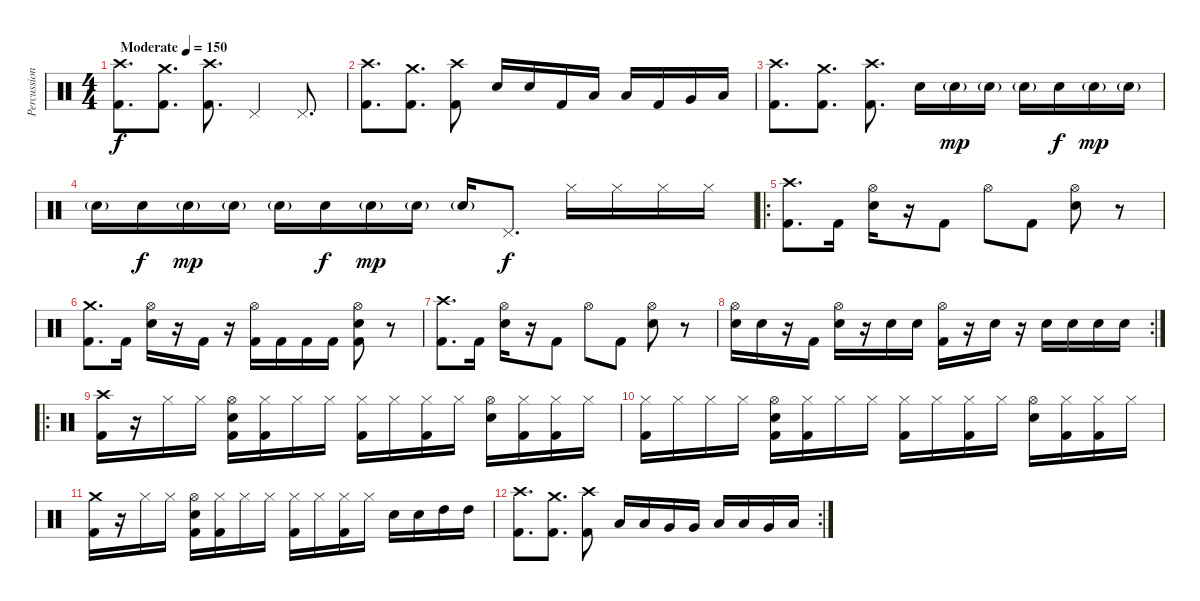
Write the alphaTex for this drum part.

\track ("Percussion" "Percussion") {instrument percussion}
\staff {score}
\articulation defaults
\ts (4 4)
\tempo (150 "Moderate")
\clef neutral
\ks c
("Crash high (hit)" "Kick (hit) 2").8{d dy f} ("Crash medium (hit)" "Kick (hit) 2").8{d} ("Crash high (hit)" "Kick (hit) 2").8{d} "Pedal Hi-Hat (hit)".4 "Pedal Hi-Hat (hit)".8{d} |
("Crash high (hit)" "Kick (hit) 2").8{d} ("Crash medium (hit)" "Kick (hit) 2").8{d} ("Crash high (hit)" "Kick (hit) 2").8 "Snare (hit) 2".16 "Snare (hit) 2".16 "Kick (hit) 2".16 "Low Tom (hit)".16 "Low Tom (hit)".16 "Kick (hit) 2".16 "Very Low Tom (hit)".16 "Low Floor Tom (hit)".16 |
("Crash high (hit)" "Kick (hit) 2").8{d} ("Crash medium (hit)" "Kick (hit) 2").8{d} ("Crash high (hit)" "Kick (hit) 2").8{d} "Snare (hit) 2".16 "Snare (hit) 2"{g}.16{dy mp} "Snare (hit) 2"{g}.16 "Snare (hit) 2"{g}.16 "Snare (hit) 2".16{dy f} "Snare (hit) 2"{g}.16{dy mp} "Snare (hit) 2"{g}.16 |
"Snare (hit) 2"{g}.16 "Snare (hit) 2".16{dy f} "Snare (hit) 2"{g}.16{dy mp} "Snare (hit) 2"{g}.16 "Snare (hit) 2"{g}.16 "Snare (hit) 2".16{dy f} "Snare (hit) 2"{g}.16{dy mp} "Snare (hit) 2"{g}.16 "Snare (hit) 2"{g}.16 "Pedal Hi-Hat (hit)".8{d dy f} "Hi-Hat (closed)".16 "Hi-Hat (closed)".16 "Hi-Hat (closed)".16 "Hi-Hat (closed)".16 |
\ro
("Crash high (hit)" "Kick (hit) 2").8{d} "Kick (hit) 2".16 ("Hi-Hat (open)" "Snare (hit) 2").16 r.16 "Kick (hit) 2".8 "Hi-Hat (open)".8 "Kick (hit) 2".8 ("Hi-Hat (open)" "Snare (hit) 2").8 r.8 |
("Crash medium (hit)" "Kick (hit) 2").8{d} "Kick (hit) 2".16 ("Hi-Hat (open)" "Snare (hit) 2").16 r.16 "Kick (hit) 2".16 r.16 ("Hi-Hat (open)" "Kick (hit) 2").16 "Kick (hit) 2".16 "Kick (hit) 2".16 "Kick (hit) 2".16 ("Hi-Hat (open)" "Snare (hit) 2" "Kick (hit) 2").8 r.8 |
("Crash high (hit)" "Kick (hit) 2").8{d} "Kick (hit) 2".16 ("Hi-Hat (open)" "Snare (hit) 2").16 r.16 "Kick (hit) 2".8 "Hi-Hat (open)".8 "Kick (hit) 2".8 ("Hi-Hat (open)" "Snare (hit) 2").8 r.8 |
\rc 2
("Hi-Hat (open)" "Snare (hit) 2").16 "Snare (hit) 2".16 r.16 "Kick (hit) 2".16 ("Hi-Hat (open)" "Snare (hit) 2").16 r.16 "Snare (hit) 2".16 "Snare (hit) 2".16 ("Hi-Hat (open)" "Kick (hit) 2").16 r.16 "Snare (hit) 2".16 r.16 "Snare (hit) 2".16 "Snare (hit) 2".16 "Snare (hit) 2".16 "Snare (hit) 2".16 |
\ro
("Crash high (hit)" "Kick (hit) 2").16 r.16 "Hi-Hat (closed)".16 "Hi-Hat (closed)".16 ("Hi-Hat (open)" "Snare (hit) 2" "Kick (hit) 2").16 ("Hi-Hat (closed)" "Kick (hit) 2").16 "Hi-Hat (closed)".16 "Hi-Hat (closed)".16 ("Hi-Hat (closed)" "Kick (hit) 2").16 "Hi-Hat (closed)".16 ("Hi-Hat (closed)" "Kick (hit) 2").16 "Hi-Hat (closed)".16 ("Hi-Hat (open)" "Snare (hit) 2").16 ("Hi-Hat (closed)" "Kick (hit) 2").16 ("Hi-Hat (closed)" "Kick (hit) 2").16 "Hi-Hat (closed)".16 |
("Hi-Hat (closed)" "Kick (hit) 2").16 "Hi-Hat (closed)".16 "Hi-Hat (closed)".16 "Hi-Hat (closed)".16 ("Hi-Hat (open)" "Snare (hit) 2" "Kick (hit) 2").16 ("Hi-Hat (closed)" "Kick (hit) 2").16 "Hi-Hat (closed)".16 "Hi-Hat (closed)".16 ("Hi-Hat (closed)" "Kick (hit) 2").16 "Hi-Hat (closed)".16 ("Hi-Hat (closed)" "Kick (hit) 2").16 "Hi-Hat (closed)".16 ("Hi-Hat (open)" "Snare (hit) 2").16 ("Hi-Hat (closed)" "Kick (hit) 2").16 ("Hi-Hat (closed)" "Kick (hit) 2").16 "Hi-Hat (closed)".16 |
("Crash medium (hit)" "Kick (hit) 2").16 r.16 "Hi-Hat (closed)".16 "Hi-Hat (closed)".16 ("Hi-Hat (open)" "Snare (hit) 2" "Kick (hit) 2").16 ("Hi-Hat (closed)" "Kick (hit) 2").16 "Hi-Hat (closed)".16 "Hi-Hat (closed)".16 ("Hi-Hat (closed)" "Kick (hit) 2").16 "Hi-Hat (closed)".16 ("Hi-Hat (closed)" "Kick (hit) 2").16 "Hi-Hat (closed)".16 "Electric Snare (hit)".16 "Electric Snare (hit)".16 "High Tom (hit)".16 "High Tom (hit)".16 |
\rc 2
("Crash high (hit)" "Kick (hit) 2").8{d} ("Crash medium (hit)" "Kick (hit) 2").8{d} ("Crash high (hit)" "Kick (hit) 2").8 "Low Tom (hit)".16 "Low Tom (hit)".16 "Very Low Tom (hit)".16 "Very Low Tom (hit)".16 "Low Tom (hit)".16 "Low Tom (hit)".16 "Very Low Tom (hit)".16 "Low Floor Tom (hit)".16
